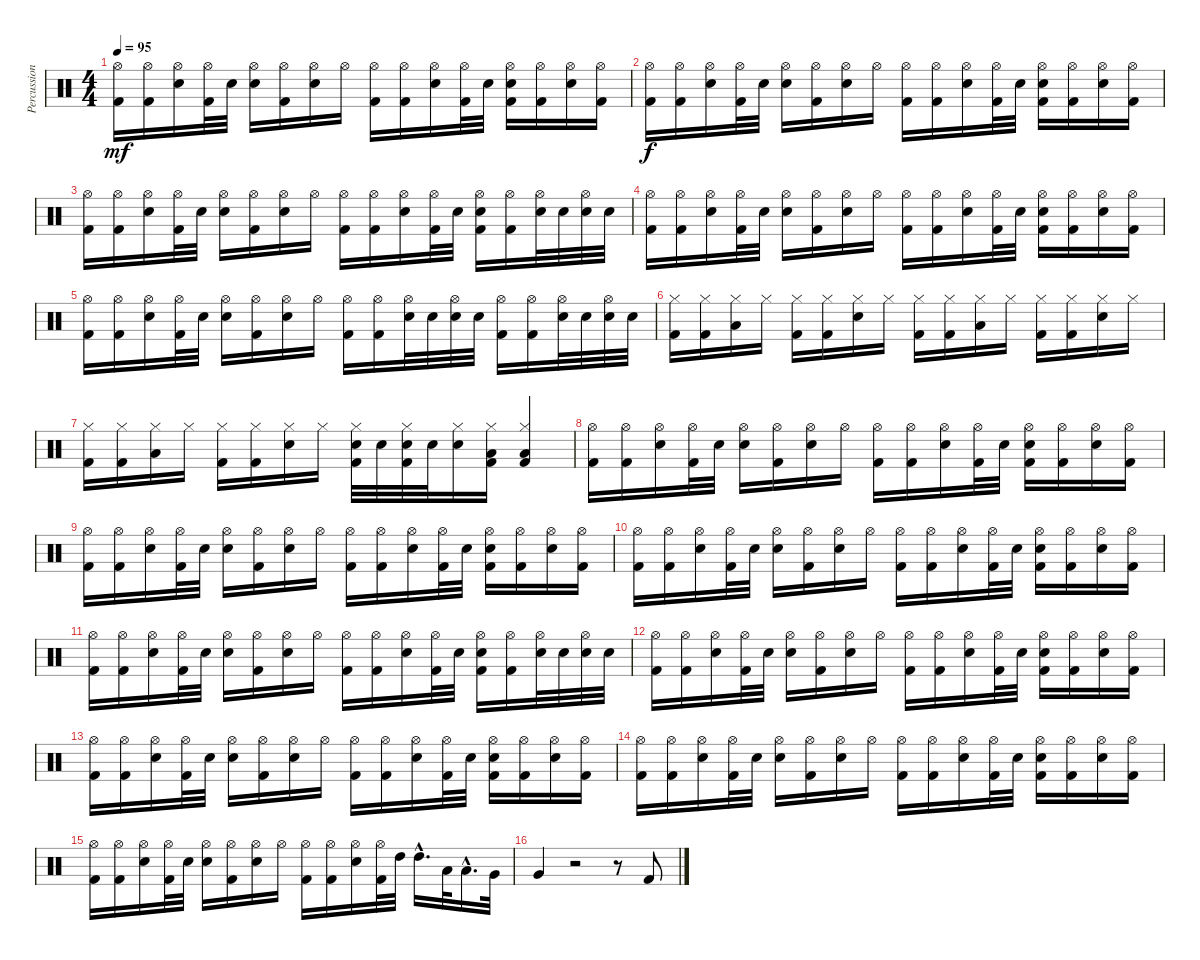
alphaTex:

\track ("Percussions" "Percussion") {instrument percussion}
\staff {score}
\articulation defaults
\ts (4 4)
\tempo 95
\clef neutral
\ks c
("Hi-Hat (open)" "Kick (hit) 2").16{dy mf} ("Hi-Hat (open)" "Kick (hit) 2").16 ("Electric Snare (hit)" "Hi-Hat (open)").16 ("Hi-Hat (open)" "Kick (hit) 2").32 "Electric Snare (hit)".32 ("Electric Snare (hit)" "Hi-Hat (open)").16 ("Hi-Hat (open)" "Kick (hit) 2").16 ("Electric Snare (hit)" "Hi-Hat (open)").16 "Hi-Hat (open)".16 ("Hi-Hat (open)" "Kick (hit) 2").16 ("Hi-Hat (open)" "Kick (hit) 2").16 ("Electric Snare (hit)" "Hi-Hat (open)").16 ("Hi-Hat (open)" "Kick (hit) 2").32 "Electric Snare (hit)".32 ("Electric Snare (hit)" "Hi-Hat (open)" "Kick (hit) 2").16 ("Hi-Hat (open)" "Kick (hit) 2").16 ("Electric Snare (hit)" "Hi-Hat (open)").16 ("Hi-Hat (open)" "Kick (hit) 2").16 |
("Hi-Hat (open)" "Kick (hit) 2").16{dy f} ("Hi-Hat (open)" "Kick (hit) 2").16 ("Electric Snare (hit)" "Hi-Hat (open)").16 ("Hi-Hat (open)" "Kick (hit) 2").32 "Electric Snare (hit)".32 ("Electric Snare (hit)" "Hi-Hat (open)").16 ("Hi-Hat (open)" "Kick (hit) 2").16 ("Electric Snare (hit)" "Hi-Hat (open)").16 "Hi-Hat (open)".16 ("Hi-Hat (open)" "Kick (hit) 2").16 ("Hi-Hat (open)" "Kick (hit) 2").16 ("Electric Snare (hit)" "Hi-Hat (open)").16 ("Hi-Hat (open)" "Kick (hit) 2").32 "Electric Snare (hit)".32 ("Electric Snare (hit)" "Hi-Hat (open)" "Kick (hit) 2").16 ("Hi-Hat (open)" "Kick (hit) 2").16 ("Electric Snare (hit)" "Hi-Hat (open)").16 ("Hi-Hat (open)" "Kick (hit) 2").16 |
("Hi-Hat (open)" "Kick (hit) 2").16 ("Hi-Hat (open)" "Kick (hit) 2").16 ("Electric Snare (hit)" "Hi-Hat (open)").16 ("Hi-Hat (open)" "Kick (hit) 2").32 "Electric Snare (hit)".32 ("Electric Snare (hit)" "Hi-Hat (open)").16 ("Hi-Hat (open)" "Kick (hit) 2").16 ("Electric Snare (hit)" "Hi-Hat (open)").16 "Hi-Hat (open)".16 ("Hi-Hat (open)" "Kick (hit) 2").16 ("Hi-Hat (open)" "Kick (hit) 2").16 ("Electric Snare (hit)" "Hi-Hat (open)").16 ("Hi-Hat (open)" "Kick (hit) 2").32 "Electric Snare (hit)".32 ("Electric Snare (hit)" "Hi-Hat (open)" "Kick (hit) 2").16 ("Hi-Hat (open)" "Kick (hit) 2").16 ("Electric Snare (hit)" "Hi-Hat (open)").32 "Electric Snare (hit)".32 ("Electric Snare (hit)" "Hi-Hat (open)").32 "Electric Snare (hit)".32 |
("Hi-Hat (open)" "Kick (hit) 2").16 ("Hi-Hat (open)" "Kick (hit) 2").16 ("Electric Snare (hit)" "Hi-Hat (open)").16 ("Hi-Hat (open)" "Kick (hit) 2").32 "Electric Snare (hit)".32 ("Electric Snare (hit)" "Hi-Hat (open)").16 ("Hi-Hat (open)" "Kick (hit) 2").16 ("Electric Snare (hit)" "Hi-Hat (open)").16 "Hi-Hat (open)".16 ("Hi-Hat (open)" "Kick (hit) 2").16 ("Hi-Hat (open)" "Kick (hit) 2").16 ("Electric Snare (hit)" "Hi-Hat (open)").16 ("Hi-Hat (open)" "Kick (hit) 2").32 "Electric Snare (hit)".32 ("Electric Snare (hit)" "Hi-Hat (open)" "Kick (hit) 2").16 ("Hi-Hat (open)" "Kick (hit) 2").16 ("Electric Snare (hit)" "Hi-Hat (open)").16 ("Hi-Hat (open)" "Kick (hit) 2").16 |
("Hi-Hat (open)" "Kick (hit) 2").16 ("Hi-Hat (open)" "Kick (hit) 2").16 ("Electric Snare (hit)" "Hi-Hat (open)").16 ("Hi-Hat (open)" "Kick (hit) 2").32 "Electric Snare (hit)".32 ("Electric Snare (hit)" "Hi-Hat (open)").16 ("Hi-Hat (open)" "Kick (hit) 2").16 ("Electric Snare (hit)" "Hi-Hat (open)").16 "Hi-Hat (open)".16 ("Hi-Hat (open)" "Kick (hit) 2").16 ("Hi-Hat (open)" "Kick (hit) 2").16 ("Electric Snare (hit)" "Hi-Hat (open)").32 "Electric Snare (hit)".32 ("Electric Snare (hit)" "Hi-Hat (open)").32 "Electric Snare (hit)".32 ("Hi-Hat (open)" "Kick (hit) 2").16 ("Hi-Hat (open)" "Kick (hit) 2").16 ("Electric Snare (hit)" "Hi-Hat (open)").32 "Electric Snare (hit)".32 ("Electric Snare (hit)" "Hi-Hat (open)").32 "Electric Snare (hit)".32 |
("Hi-Hat (closed)" "Kick (hit) 2").16 ("Hi-Hat (closed)" "Kick (hit) 2").16 ("Low Tom (hit)" "Hi-Hat (closed)").16 "Hi-Hat (closed)".16 ("Hi-Hat (closed)" "Kick (hit) 2").16 ("Hi-Hat (closed)" "Kick (hit) 2").16 ("Electric Snare (hit)" "Hi-Hat (closed)").16 "Hi-Hat (closed)".16 ("Hi-Hat (closed)" "Kick (hit) 2").16 ("Hi-Hat (closed)" "Kick (hit) 2").16 ("Low Tom (hit)" "Hi-Hat (closed)").16 "Hi-Hat (closed)".16 ("Hi-Hat (closed)" "Kick (hit) 2").16 ("Hi-Hat (closed)" "Kick (hit) 2").16 ("Electric Snare (hit)" "Hi-Hat (closed)").16 "Hi-Hat (closed)".16 |
("Hi-Hat (closed)" "Kick (hit) 2").16 ("Hi-Hat (closed)" "Kick (hit) 2").16 ("Low Tom (hit)" "Hi-Hat (closed)").16 "Hi-Hat (closed)".16 ("Hi-Hat (closed)" "Kick (hit) 2").16 ("Hi-Hat (closed)" "Kick (hit) 2").16 ("Electric Snare (hit)" "Hi-Hat (closed)").16 "Hi-Hat (closed)".16 ("Electric Snare (hit)" "Hi-Hat (closed)" "Kick (hit) 2").32 "Electric Snare (hit)".32 ("Electric Snare (hit)" "Hi-Hat (closed)" "Kick (hit) 2").32 "Electric Snare (hit)".32 ("Electric Snare (hit)" "Hi-Hat (closed)").16 ("Low Tom (hit)" "Hi-Hat (closed)" "Kick (hit) 2").16 ("Low Tom (hit)" "Hi-Hat (closed)" "Kick (hit) 2").4 |
("Hi-Hat (open)" "Kick (hit) 2").16 ("Hi-Hat (open)" "Kick (hit) 2").16 ("Electric Snare (hit)" "Hi-Hat (open)").16 ("Hi-Hat (open)" "Kick (hit) 2").32 "Electric Snare (hit)".32 ("Electric Snare (hit)" "Hi-Hat (open)").16 ("Hi-Hat (open)" "Kick (hit) 2").16 ("Electric Snare (hit)" "Hi-Hat (open)").16 "Hi-Hat (open)".16 ("Hi-Hat (open)" "Kick (hit) 2").16 ("Hi-Hat (open)" "Kick (hit) 2").16 ("Electric Snare (hit)" "Hi-Hat (open)").16 ("Hi-Hat (open)" "Kick (hit) 2").32 "Electric Snare (hit)".32 ("Electric Snare (hit)" "Hi-Hat (open)" "Kick (hit) 2").16 ("Hi-Hat (open)" "Kick (hit) 2").16 ("Electric Snare (hit)" "Hi-Hat (open)").16 ("Hi-Hat (open)" "Kick (hit) 2").16 |
("Hi-Hat (open)" "Kick (hit) 2").16 ("Hi-Hat (open)" "Kick (hit) 2").16 ("Electric Snare (hit)" "Hi-Hat (open)").16 ("Hi-Hat (open)" "Kick (hit) 2").32 "Electric Snare (hit)".32 ("Electric Snare (hit)" "Hi-Hat (open)").16 ("Hi-Hat (open)" "Kick (hit) 2").16 ("Electric Snare (hit)" "Hi-Hat (open)").16 "Hi-Hat (open)".16 ("Hi-Hat (open)" "Kick (hit) 2").16 ("Hi-Hat (open)" "Kick (hit) 2").16 ("Electric Snare (hit)" "Hi-Hat (open)").16 ("Hi-Hat (open)" "Kick (hit) 2").32 "Electric Snare (hit)".32 ("Electric Snare (hit)" "Hi-Hat (open)" "Kick (hit) 2").16 ("Hi-Hat (open)" "Kick (hit) 2").16 ("Electric Snare (hit)" "Hi-Hat (open)").16 ("Hi-Hat (open)" "Kick (hit) 2").16 |
("Hi-Hat (open)" "Kick (hit) 2").16 ("Hi-Hat (open)" "Kick (hit) 2").16 ("Electric Snare (hit)" "Hi-Hat (open)").16 ("Hi-Hat (open)" "Kick (hit) 2").32 "Electric Snare (hit)".32 ("Electric Snare (hit)" "Hi-Hat (open)").16 ("Hi-Hat (open)" "Kick (hit) 2").16 ("Electric Snare (hit)" "Hi-Hat (open)").16 "Hi-Hat (open)".16 ("Hi-Hat (open)" "Kick (hit) 2").16 ("Hi-Hat (open)" "Kick (hit) 2").16 ("Electric Snare (hit)" "Hi-Hat (open)").16 ("Hi-Hat (open)" "Kick (hit) 2").32 "Electric Snare (hit)".32 ("Electric Snare (hit)" "Hi-Hat (open)" "Kick (hit) 2").16 ("Hi-Hat (open)" "Kick (hit) 2").16 ("Electric Snare (hit)" "Hi-Hat (open)").16 ("Hi-Hat (open)" "Kick (hit) 2").16 |
("Hi-Hat (open)" "Kick (hit) 2").16 ("Hi-Hat (open)" "Kick (hit) 2").16 ("Electric Snare (hit)" "Hi-Hat (open)").16 ("Hi-Hat (open)" "Kick (hit) 2").32 "Electric Snare (hit)".32 ("Electric Snare (hit)" "Hi-Hat (open)").16 ("Hi-Hat (open)" "Kick (hit) 2").16 ("Electric Snare (hit)" "Hi-Hat (open)").16 "Hi-Hat (open)".16 ("Hi-Hat (open)" "Kick (hit) 2").16 ("Hi-Hat (open)" "Kick (hit) 2").16 ("Electric Snare (hit)" "Hi-Hat (open)").16 ("Hi-Hat (open)" "Kick (hit) 2").32 "Electric Snare (hit)".32 ("Electric Snare (hit)" "Hi-Hat (open)" "Kick (hit) 2").16 ("Hi-Hat (open)" "Kick (hit) 2").16 ("Electric Snare (hit)" "Hi-Hat (open)").32 "Electric Snare (hit)".32 ("Electric Snare (hit)" "Hi-Hat (open)").32 "Electric Snare (hit)".32 |
("Hi-Hat (open)" "Kick (hit) 2").16 ("Hi-Hat (open)" "Kick (hit) 2").16 ("Electric Snare (hit)" "Hi-Hat (open)").16 ("Hi-Hat (open)" "Kick (hit) 2").32 "Electric Snare (hit)".32 ("Electric Snare (hit)" "Hi-Hat (open)").16 ("Hi-Hat (open)" "Kick (hit) 2").16 ("Electric Snare (hit)" "Hi-Hat (open)").16 "Hi-Hat (open)".16 ("Hi-Hat (open)" "Kick (hit) 2").16 ("Hi-Hat (open)" "Kick (hit) 2").16 ("Electric Snare (hit)" "Hi-Hat (open)").16 ("Hi-Hat (open)" "Kick (hit) 2").32 "Electric Snare (hit)".32 ("Electric Snare (hit)" "Hi-Hat (open)" "Kick (hit) 2").16 ("Hi-Hat (open)" "Kick (hit) 2").16 ("Electric Snare (hit)" "Hi-Hat (open)").16 ("Hi-Hat (open)" "Kick (hit) 2").16 |
("Hi-Hat (open)" "Kick (hit) 2").16 ("Hi-Hat (open)" "Kick (hit) 2").16 ("Electric Snare (hit)" "Hi-Hat (open)").16 ("Hi-Hat (open)" "Kick (hit) 2").32 "Electric Snare (hit)".32 ("Electric Snare (hit)" "Hi-Hat (open)").16 ("Hi-Hat (open)" "Kick (hit) 2").16 ("Electric Snare (hit)" "Hi-Hat (open)").16 "Hi-Hat (open)".16 ("Hi-Hat (open)" "Kick (hit) 2").16 ("Hi-Hat (open)" "Kick (hit) 2").16 ("Electric Snare (hit)" "Hi-Hat (open)").16 ("Hi-Hat (open)" "Kick (hit) 2").32 "Electric Snare (hit)".32 ("Electric Snare (hit)" "Hi-Hat (open)" "Kick (hit) 2").16 ("Hi-Hat (open)" "Kick (hit) 2").16 ("Electric Snare (hit)" "Hi-Hat (open)").16 ("Hi-Hat (open)" "Kick (hit) 2").16 |
("Hi-Hat (open)" "Kick (hit) 2").16 ("Hi-Hat (open)" "Kick (hit) 2").16 ("Electric Snare (hit)" "Hi-Hat (open)").16 ("Hi-Hat (open)" "Kick (hit) 2").32 "Electric Snare (hit)".32 ("Electric Snare (hit)" "Hi-Hat (open)").16 ("Hi-Hat (open)" "Kick (hit) 2").16 ("Electric Snare (hit)" "Hi-Hat (open)").16 "Hi-Hat (open)".16 ("Hi-Hat (open)" "Kick (hit) 2").16 ("Hi-Hat (open)" "Kick (hit) 2").16 ("Electric Snare (hit)" "Hi-Hat (open)").16 ("Hi-Hat (open)" "Kick (hit) 2").32 "Electric Snare (hit)".32 ("Electric Snare (hit)" "Hi-Hat (open)" "Kick (hit) 2").16 ("Hi-Hat (open)" "Kick (hit) 2").16 ("Electric Snare (hit)" "Hi-Hat (open)").16 ("Hi-Hat (open)" "Kick (hit) 2").16 |
("Hi-Hat (open)" "Kick (hit) 2").16 ("Hi-Hat (open)" "Kick (hit) 2").16 ("Electric Snare (hit)" "Hi-Hat (open)").16 ("Hi-Hat (open)" "Kick (hit) 2").32 "Electric Snare (hit)".32 ("Electric Snare (hit)" "Hi-Hat (open)").16 ("Hi-Hat (open)" "Kick (hit) 2").16 ("Electric Snare (hit)" "Hi-Hat (open)").16 "Hi-Hat (open)".16 ("Hi-Hat (open)" "Kick (hit) 2").16 ("Hi-Hat (open)" "Kick (hit) 2").16 ("Electric Snare (hit)" "Hi-Hat (open)").16 ("Hi-Hat (open)" "Kick (hit) 2").32 "High Tom (hit)".32 "High Tom (hit)"{hac}.16{d} "Low Tom (hit)".32 "Low Tom (hit)"{hac}.16{d} "Very Low Tom (hit)".32 |
"Very Low Tom (hit)".4 r.2 r.8 "Kick (hit) 2".8
